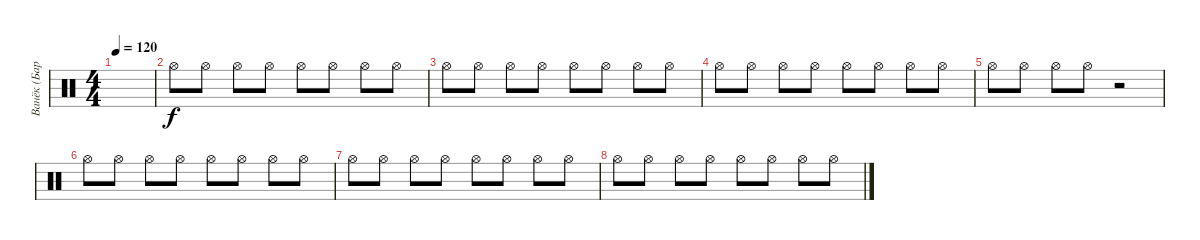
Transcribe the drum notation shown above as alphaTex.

\track ("Ванёк (Барабанщик)" "Ванёк (Бар") {instrument percussion}
\staff {score}
\articulation defaults
\ts (4 4)
\tempo 120
\clef neutral
\ks c
|
"Hi-Hat (open)".8 "Hi-Hat (open)".8 "Hi-Hat (open)".8 "Hi-Hat (open)".8 "Hi-Hat (open)".8 "Hi-Hat (open)".8 "Hi-Hat (open)".8 "Hi-Hat (open)".8 |
"Hi-Hat (open)".8 "Hi-Hat (open)".8 "Hi-Hat (open)".8 "Hi-Hat (open)".8 "Hi-Hat (open)".8 "Hi-Hat (open)".8 "Hi-Hat (open)".8 "Hi-Hat (open)".8 |
"Hi-Hat (open)".8 "Hi-Hat (open)".8 "Hi-Hat (open)".8 "Hi-Hat (open)".8 "Hi-Hat (open)".8 "Hi-Hat (open)".8 "Hi-Hat (open)".8 "Hi-Hat (open)".8 |
"Hi-Hat (open)".8 "Hi-Hat (open)".8 "Hi-Hat (open)".8 "Hi-Hat (open)".8 r.2 |
"Hi-Hat (open)".8 "Hi-Hat (open)".8 "Hi-Hat (open)".8 "Hi-Hat (open)".8 "Hi-Hat (open)".8 "Hi-Hat (open)".8 "Hi-Hat (open)".8 "Hi-Hat (open)".8 |
"Hi-Hat (open)".8 "Hi-Hat (open)".8 "Hi-Hat (open)".8 "Hi-Hat (open)".8 "Hi-Hat (open)".8 "Hi-Hat (open)".8 "Hi-Hat (open)".8 "Hi-Hat (open)".8 |
"Hi-Hat (open)".8 "Hi-Hat (open)".8 "Hi-Hat (open)".8 "Hi-Hat (open)".8 "Hi-Hat (open)".8 "Hi-Hat (open)".8 "Hi-Hat (open)".8 "Hi-Hat (open)".8
